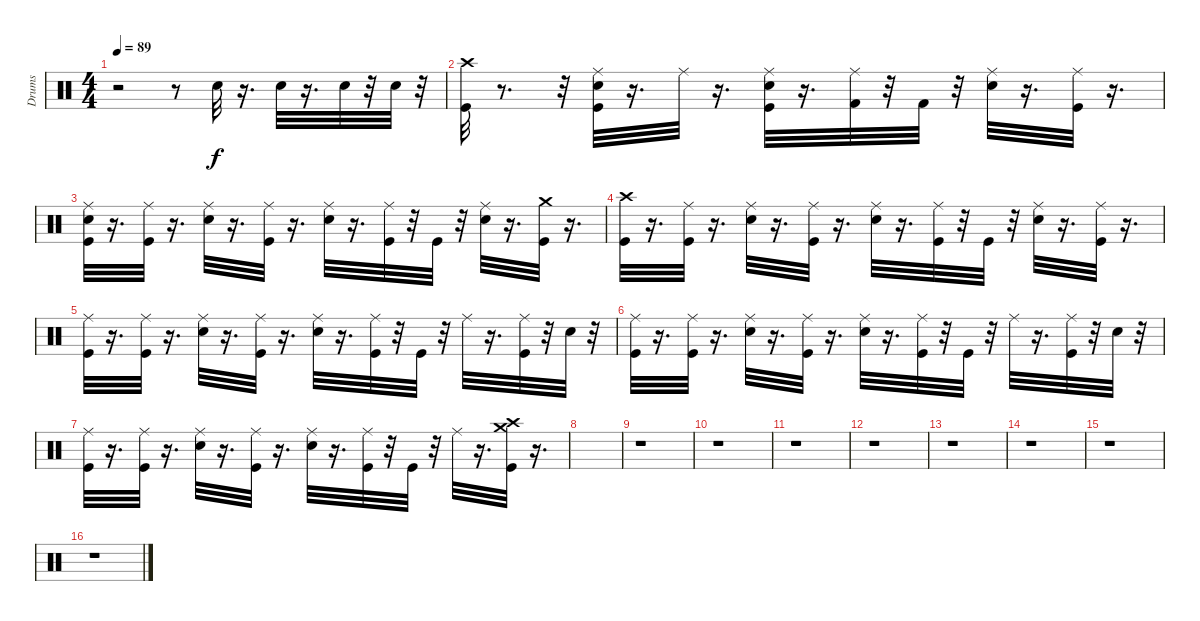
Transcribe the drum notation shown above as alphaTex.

\track ("Drums" "Drums") {instrument percussion}
\staff {score}
\articulation defaults
\ts (4 4)
\tempo 89
\clef neutral
\ks c
r.2{dy ff} r.8 "Electric Snare (hit)".32{dy f} r.16{d} "Electric Snare (hit)".32 r.16{d} "Electric Snare (hit)".32 r.32 "Electric Snare (hit)".32 r.32 |
("Crash high (hit)" "Kick (hit)").32 r.8{d} r.32 ("Ride (middle)" "Electric Snare (hit)" "Kick (hit)").32 r.16{d} "Ride (middle)".32 r.16{d} ("Kick (hit)" "Electric Snare (hit)" "Ride (middle)").32 r.16{d} ("Kick (hit) 2" "Ride (middle)").32 r.32 "Kick (hit) 2".32 r.32 ("Electric Snare (hit)" "Ride (middle)").32 r.16{d} ("Kick (hit)" "Ride (middle)").32 r.16{d} |
("Ride (middle)" "Electric Snare (hit)" "Kick (hit)").32 r.16{d} ("Ride (middle)" "Kick (hit)").32 r.16{d} ("Ride (middle)" "Electric Snare (hit)").32 r.16{d} ("Ride (middle)" "Kick (hit)").32 r.16{d} ("Ride (middle)" "Electric Snare (hit)").32 r.16{d} ("Ride (middle)" "Kick (hit)").32 r.32 "Kick (hit)".32 r.32 ("Ride (middle)" "Electric Snare (hit)").32 r.16{d} ("Crash medium (hit)" "Kick (hit)").32 r.16{d} |
("Crash high (hit)" "Kick (hit)").32 r.16{d} ("Ride (middle)" "Kick (hit)").32 r.16{d} ("Ride (middle)" "Electric Snare (hit)").32 r.16{d} ("Ride (middle)" "Kick (hit)").32 r.16{d} ("Ride (middle)" "Electric Snare (hit)").32 r.16{d} ("Ride (middle)" "Kick (hit)").32 r.32 "Kick (hit)".32 r.32 ("Ride (middle)" "Electric Snare (hit)").32 r.16{d} ("Ride (middle)" "Kick (hit)").32 r.16{d} |
("Kick (hit)" "Ride (middle)").32 r.16{d} ("Kick (hit)" "Ride (middle)").32 r.16{d} ("Electric Snare (hit)" "Ride (middle)").32 r.16{d} ("Kick (hit)" "Ride (middle)").32 r.16{d} ("Electric Snare (hit)" "Ride (middle)").32 r.16{d} ("Kick (hit)" "Ride (middle)").32 r.32 "Kick (hit)".32 r.32 "Ride (middle)".32 r.16{d} ("Kick (hit)" "Ride (middle)").32 r.32 "Electric Snare (hit)".32 r.32 |
("Kick (hit)" "Ride (middle)").32 r.16{d} ("Kick (hit)" "Ride (middle)").32 r.16{d} ("Electric Snare (hit)" "Ride (middle)").32 r.16{d} ("Kick (hit)" "Ride (middle)").32 r.16{d} ("Electric Snare (hit)" "Ride (middle)").32 r.16{d} ("Kick (hit)" "Ride (middle)").32 r.32 "Kick (hit)".32 r.32 "Ride (middle)".32 r.16{d} ("Kick (hit)" "Ride (middle)").32 r.32 "Electric Snare (hit)".32 r.32 |
("Kick (hit)" "Ride (middle)").32 r.16{d} ("Kick (hit)" "Ride (middle)").32 r.16{d} ("Electric Snare (hit)" "Ride (middle)").32 r.16{d} ("Kick (hit)" "Ride (middle)").32 r.16{d} ("Electric Snare (hit)" "Ride (middle)").32 r.16{d} ("Kick (hit)" "Ride (middle)").32 r.32 "Kick (hit)".32 r.32 "Ride (middle)".32 r.16{d} ("Crash high (hit)" "Kick (hit)" "Crash medium (hit)").32 r.16{d} |
|
r.1 |
r.1 |
r.1 |
r.1 |
r.1 |
r.1 |
r.1 |
r.1
